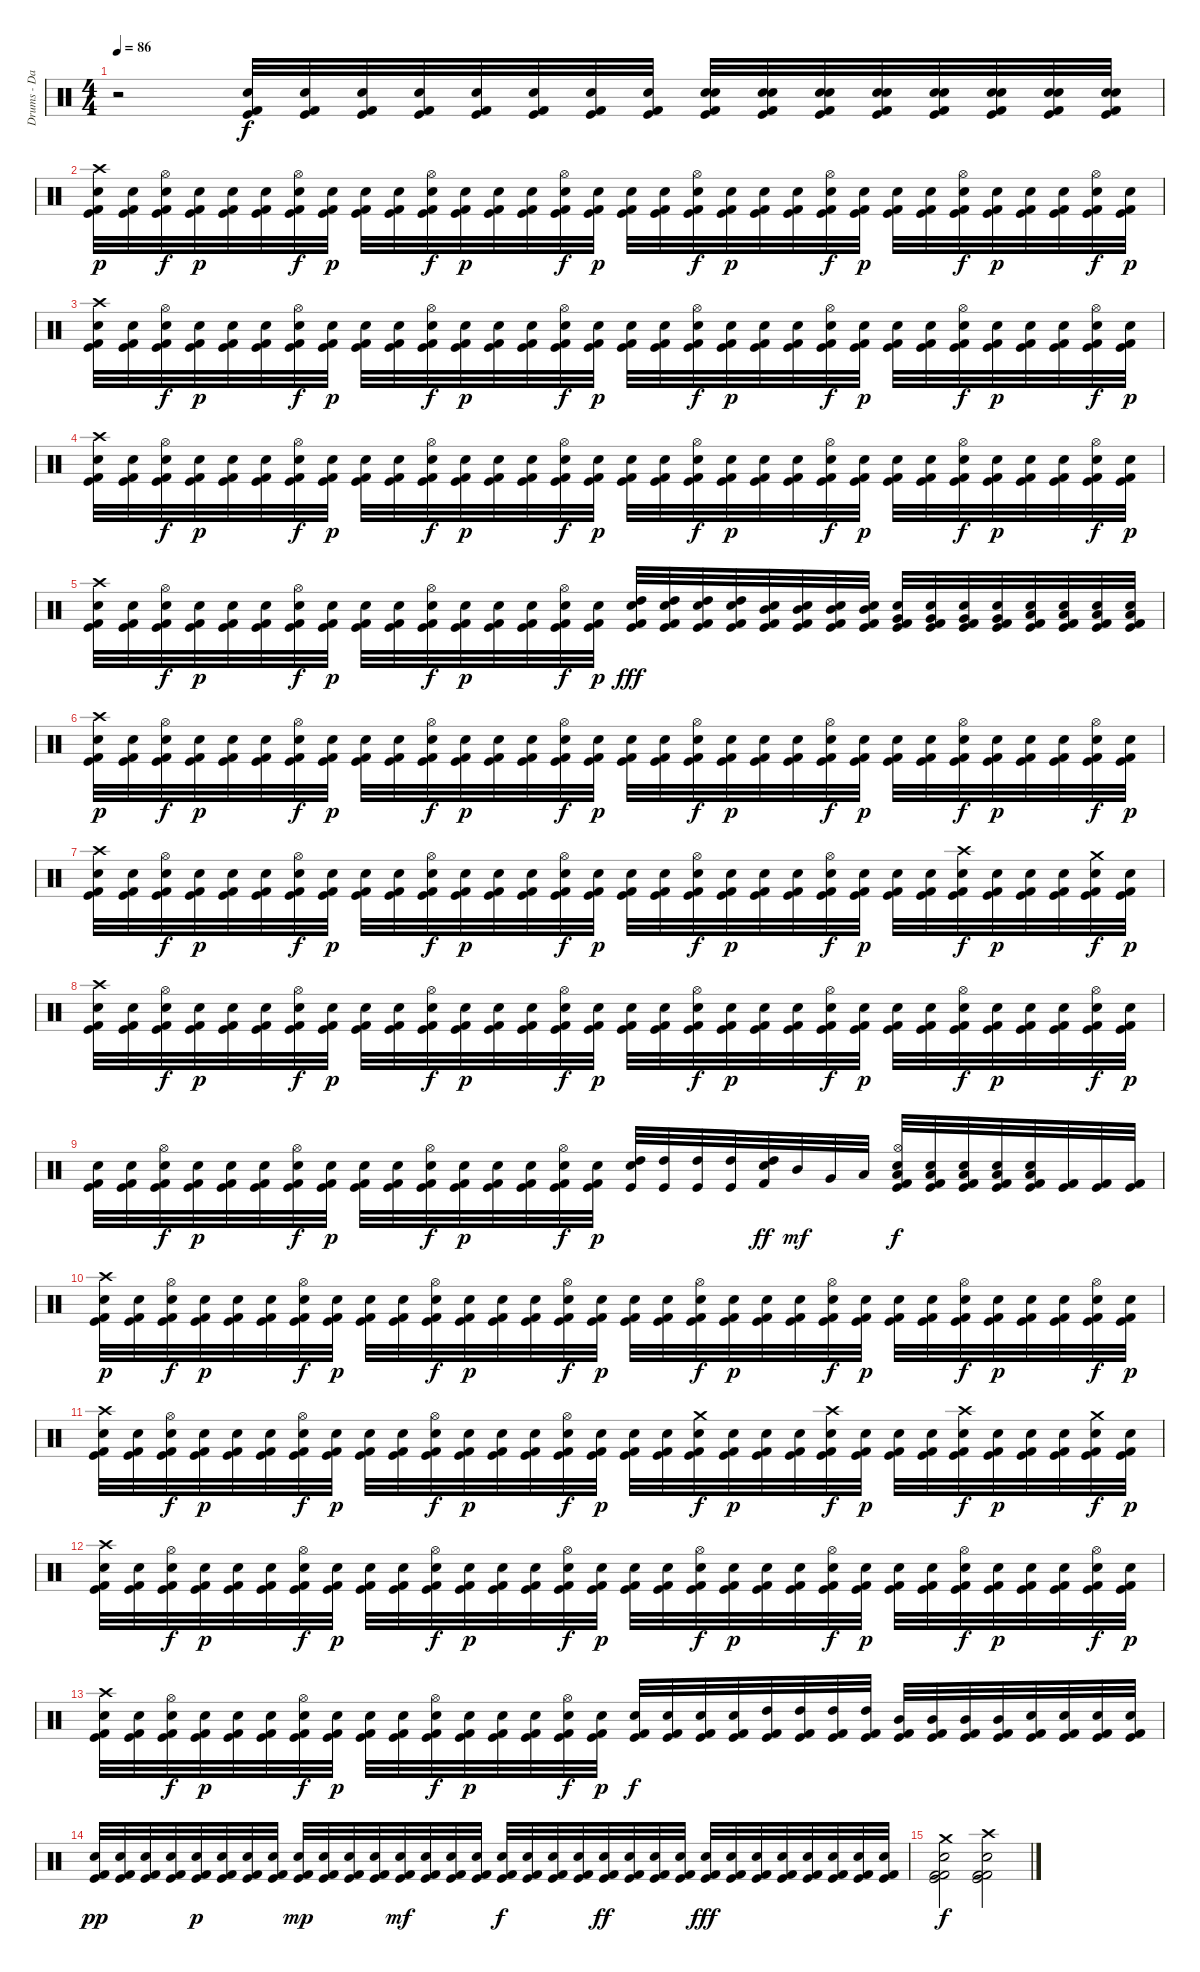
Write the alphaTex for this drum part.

\track ("Drums - Daniel Zimmermann" "Drums - Da") {instrument percussion}
\staff {score}
\articulation defaults
\ts (4 4)
\tempo 86
\clef neutral
\ks c
r.2{dy f} ("Kick (hit)" "Kick (hit) 2" "Electric Snare (hit)").32 ("Kick (hit)" "Kick (hit) 2" "Electric Snare (hit)").32 ("Kick (hit)" "Kick (hit) 2" "Electric Snare (hit)").32 ("Kick (hit)" "Kick (hit) 2" "Electric Snare (hit)").32 ("Kick (hit)" "Kick (hit) 2" "Electric Snare (hit)").32 ("Kick (hit)" "Kick (hit) 2" "Electric Snare (hit)").32 ("Kick (hit)" "Kick (hit) 2" "Electric Snare (hit)").32 ("Kick (hit)" "Kick (hit) 2" "Electric Snare (hit)").32 ("Kick (hit)" "Kick (hit) 2" "Snare (hit) 2" "Electric Snare (hit)").32 ("Kick (hit)" "Kick (hit) 2" "Snare (hit) 2" "Electric Snare (hit)").32 ("Kick (hit)" "Kick (hit) 2" "Snare (hit) 2" "Electric Snare (hit)").32 ("Kick (hit)" "Kick (hit) 2" "Snare (hit) 2" "Electric Snare (hit)").32 ("Kick (hit)" "Kick (hit) 2" "Snare (hit) 2" "Electric Snare (hit)").32 ("Kick (hit)" "Kick (hit) 2" "Snare (hit) 2" "Electric Snare (hit)").32 ("Kick (hit)" "Kick (hit) 2" "Snare (hit) 2" "Electric Snare (hit)").32 ("Kick (hit)" "Kick (hit) 2" "Snare (hit) 2" "Electric Snare (hit)").32 |
("Kick (hit)" "Kick (hit) 2" "Electric Snare (hit)" "Crash high (hit)").32{dy p} ("Kick (hit)" "Kick (hit) 2" "Electric Snare (hit)").32 ("Kick (hit)" "Kick (hit) 2" "Electric Snare (hit)" "Hi-Hat (open)").32{dy f} ("Kick (hit)" "Kick (hit) 2" "Electric Snare (hit)").32{dy p} ("Kick (hit)" "Kick (hit) 2" "Electric Snare (hit)").32 ("Kick (hit)" "Kick (hit) 2" "Electric Snare (hit)").32 ("Kick (hit)" "Kick (hit) 2" "Electric Snare (hit)" "Hi-Hat (open)").32{dy f} ("Kick (hit)" "Kick (hit) 2" "Electric Snare (hit)").32{dy p} ("Kick (hit)" "Kick (hit) 2" "Electric Snare (hit)").32 ("Kick (hit)" "Kick (hit) 2" "Electric Snare (hit)").32 ("Kick (hit)" "Kick (hit) 2" "Electric Snare (hit)" "Hi-Hat (open)").32{dy f} ("Kick (hit)" "Kick (hit) 2" "Electric Snare (hit)").32{dy p} ("Kick (hit)" "Kick (hit) 2" "Electric Snare (hit)").32 ("Kick (hit)" "Kick (hit) 2" "Electric Snare (hit)").32 ("Kick (hit)" "Kick (hit) 2" "Electric Snare (hit)" "Hi-Hat (open)").32{dy f} ("Kick (hit)" "Kick (hit) 2" "Electric Snare (hit)").32{dy p} ("Kick (hit)" "Kick (hit) 2" "Electric Snare (hit)").32 ("Kick (hit)" "Kick (hit) 2" "Electric Snare (hit)").32 ("Kick (hit)" "Kick (hit) 2" "Electric Snare (hit)" "Hi-Hat (open)").32{dy f} ("Kick (hit)" "Kick (hit) 2" "Electric Snare (hit)").32{dy p} ("Kick (hit)" "Kick (hit) 2" "Electric Snare (hit)").32 ("Kick (hit)" "Kick (hit) 2" "Electric Snare (hit)").32 ("Kick (hit)" "Kick (hit) 2" "Electric Snare (hit)" "Hi-Hat (open)").32{dy f} ("Kick (hit)" "Kick (hit) 2" "Electric Snare (hit)").32{dy p} ("Kick (hit)" "Kick (hit) 2" "Electric Snare (hit)").32 ("Kick (hit)" "Kick (hit) 2" "Electric Snare (hit)").32 ("Kick (hit)" "Kick (hit) 2" "Electric Snare (hit)" "Hi-Hat (open)").32{dy f} ("Kick (hit)" "Kick (hit) 2" "Electric Snare (hit)").32{dy p} ("Kick (hit)" "Kick (hit) 2" "Electric Snare (hit)").32 ("Kick (hit)" "Kick (hit) 2" "Electric Snare (hit)").32 ("Kick (hit)" "Kick (hit) 2" "Electric Snare (hit)" "Hi-Hat (open)").32{dy f} ("Kick (hit)" "Kick (hit) 2" "Electric Snare (hit)").32{dy p} |
("Kick (hit)" "Kick (hit) 2" "Electric Snare (hit)" "Crash high (hit)").32 ("Kick (hit)" "Kick (hit) 2" "Electric Snare (hit)").32 ("Kick (hit)" "Kick (hit) 2" "Electric Snare (hit)" "Hi-Hat (open)").32{dy f} ("Kick (hit)" "Kick (hit) 2" "Electric Snare (hit)").32{dy p} ("Kick (hit)" "Kick (hit) 2" "Electric Snare (hit)").32 ("Kick (hit)" "Kick (hit) 2" "Electric Snare (hit)").32 ("Kick (hit)" "Kick (hit) 2" "Electric Snare (hit)" "Hi-Hat (open)").32{dy f} ("Kick (hit)" "Kick (hit) 2" "Electric Snare (hit)").32{dy p} ("Kick (hit)" "Kick (hit) 2" "Electric Snare (hit)").32 ("Kick (hit)" "Kick (hit) 2" "Electric Snare (hit)").32 ("Kick (hit)" "Kick (hit) 2" "Electric Snare (hit)" "Hi-Hat (open)").32{dy f} ("Kick (hit)" "Kick (hit) 2" "Electric Snare (hit)").32{dy p} ("Kick (hit)" "Kick (hit) 2" "Electric Snare (hit)").32 ("Kick (hit)" "Kick (hit) 2" "Electric Snare (hit)").32 ("Kick (hit)" "Kick (hit) 2" "Electric Snare (hit)" "Hi-Hat (open)").32{dy f} ("Kick (hit)" "Kick (hit) 2" "Electric Snare (hit)").32{dy p} ("Kick (hit)" "Kick (hit) 2" "Electric Snare (hit)").32 ("Kick (hit)" "Kick (hit) 2" "Electric Snare (hit)").32 ("Kick (hit)" "Kick (hit) 2" "Electric Snare (hit)" "Hi-Hat (open)").32{dy f} ("Kick (hit)" "Kick (hit) 2" "Electric Snare (hit)").32{dy p} ("Kick (hit)" "Kick (hit) 2" "Electric Snare (hit)").32 ("Kick (hit)" "Kick (hit) 2" "Electric Snare (hit)").32 ("Kick (hit)" "Kick (hit) 2" "Electric Snare (hit)" "Hi-Hat (open)").32{dy f} ("Kick (hit)" "Kick (hit) 2" "Electric Snare (hit)").32{dy p} ("Kick (hit)" "Kick (hit) 2" "Electric Snare (hit)").32 ("Kick (hit)" "Kick (hit) 2" "Electric Snare (hit)").32 ("Kick (hit)" "Kick (hit) 2" "Electric Snare (hit)" "Hi-Hat (open)").32{dy f} ("Kick (hit)" "Kick (hit) 2" "Electric Snare (hit)").32{dy p} ("Kick (hit)" "Kick (hit) 2" "Electric Snare (hit)").32 ("Kick (hit)" "Kick (hit) 2" "Electric Snare (hit)").32 ("Kick (hit)" "Kick (hit) 2" "Electric Snare (hit)" "Hi-Hat (open)").32{dy f} ("Kick (hit)" "Kick (hit) 2" "Electric Snare (hit)").32{dy p} |
("Kick (hit)" "Kick (hit) 2" "Electric Snare (hit)" "Crash high (hit)").32 ("Kick (hit)" "Kick (hit) 2" "Electric Snare (hit)").32 ("Kick (hit)" "Kick (hit) 2" "Electric Snare (hit)" "Hi-Hat (open)").32{dy f} ("Kick (hit)" "Kick (hit) 2" "Electric Snare (hit)").32{dy p} ("Kick (hit)" "Kick (hit) 2" "Electric Snare (hit)").32 ("Kick (hit)" "Kick (hit) 2" "Electric Snare (hit)").32 ("Kick (hit)" "Kick (hit) 2" "Electric Snare (hit)" "Hi-Hat (open)").32{dy f} ("Kick (hit)" "Kick (hit) 2" "Electric Snare (hit)").32{dy p} ("Kick (hit)" "Kick (hit) 2" "Electric Snare (hit)").32 ("Kick (hit)" "Kick (hit) 2" "Electric Snare (hit)").32 ("Kick (hit)" "Kick (hit) 2" "Electric Snare (hit)" "Hi-Hat (open)").32{dy f} ("Kick (hit)" "Kick (hit) 2" "Electric Snare (hit)").32{dy p} ("Kick (hit)" "Kick (hit) 2" "Electric Snare (hit)").32 ("Kick (hit)" "Kick (hit) 2" "Electric Snare (hit)").32 ("Kick (hit)" "Kick (hit) 2" "Electric Snare (hit)" "Hi-Hat (open)").32{dy f} ("Kick (hit)" "Kick (hit) 2" "Electric Snare (hit)").32{dy p} ("Kick (hit)" "Kick (hit) 2" "Electric Snare (hit)").32 ("Kick (hit)" "Kick (hit) 2" "Electric Snare (hit)").32 ("Kick (hit)" "Kick (hit) 2" "Electric Snare (hit)" "Hi-Hat (open)").32{dy f} ("Kick (hit)" "Kick (hit) 2" "Electric Snare (hit)").32{dy p} ("Kick (hit)" "Kick (hit) 2" "Electric Snare (hit)").32 ("Kick (hit)" "Kick (hit) 2" "Electric Snare (hit)").32 ("Kick (hit)" "Kick (hit) 2" "Electric Snare (hit)" "Hi-Hat (open)").32{dy f} ("Kick (hit)" "Kick (hit) 2" "Electric Snare (hit)").32{dy p} ("Kick (hit)" "Kick (hit) 2" "Electric Snare (hit)").32 ("Kick (hit)" "Kick (hit) 2" "Electric Snare (hit)").32 ("Kick (hit)" "Kick (hit) 2" "Electric Snare (hit)" "Hi-Hat (open)").32{dy f} ("Kick (hit)" "Kick (hit) 2" "Electric Snare (hit)").32{dy p} ("Kick (hit)" "Kick (hit) 2" "Electric Snare (hit)").32 ("Kick (hit)" "Kick (hit) 2" "Electric Snare (hit)").32 ("Kick (hit)" "Kick (hit) 2" "Electric Snare (hit)" "Hi-Hat (open)").32{dy f} ("Kick (hit)" "Kick (hit) 2" "Electric Snare (hit)").32{dy p} |
("Kick (hit)" "Kick (hit) 2" "Electric Snare (hit)" "Crash high (hit)").32 ("Kick (hit)" "Kick (hit) 2" "Electric Snare (hit)").32 ("Kick (hit)" "Kick (hit) 2" "Electric Snare (hit)" "Hi-Hat (open)").32{dy f} ("Kick (hit)" "Kick (hit) 2" "Electric Snare (hit)").32{dy p} ("Kick (hit)" "Kick (hit) 2" "Electric Snare (hit)").32 ("Kick (hit)" "Kick (hit) 2" "Electric Snare (hit)").32 ("Kick (hit)" "Kick (hit) 2" "Electric Snare (hit)" "Hi-Hat (open)").32{dy f} ("Kick (hit)" "Kick (hit) 2" "Electric Snare (hit)").32{dy p} ("Kick (hit)" "Kick (hit) 2" "Electric Snare (hit)").32 ("Kick (hit)" "Kick (hit) 2" "Electric Snare (hit)").32 ("Kick (hit)" "Kick (hit) 2" "Electric Snare (hit)" "Hi-Hat (open)").32{dy f} ("Kick (hit)" "Kick (hit) 2" "Electric Snare (hit)").32{dy p} ("Kick (hit)" "Kick (hit) 2" "Electric Snare (hit)").32 ("Kick (hit)" "Kick (hit) 2" "Electric Snare (hit)").32 ("Kick (hit)" "Kick (hit) 2" "Electric Snare (hit)" "Hi-Hat (open)").32{dy f} ("Kick (hit)" "Kick (hit) 2" "Electric Snare (hit)").32{dy p} ("Kick (hit)" "Kick (hit) 2" "Electric Snare (hit)" "High Tom (hit)").32{dy fff} ("Kick (hit)" "Kick (hit) 2" "Electric Snare (hit)" "High Tom (hit)").32 ("Kick (hit)" "Kick (hit) 2" "Electric Snare (hit)" "High Tom (hit)").32 ("Kick (hit)" "Kick (hit) 2" "Electric Snare (hit)" "High Tom (hit)").32 ("Kick (hit)" "Kick (hit) 2" "Electric Snare (hit)" "Mid Tom (hit)").32 ("Kick (hit)" "Kick (hit) 2" "Electric Snare (hit)" "Mid Tom (hit)").32 ("Kick (hit)" "Kick (hit) 2" "Electric Snare (hit)" "Mid Tom (hit)").32 ("Kick (hit)" "Kick (hit) 2" "Electric Snare (hit)" "Mid Tom (hit)").32 ("Kick (hit)" "Kick (hit) 2" "Electric Snare (hit)" "Very Low Tom (hit)").32 ("Kick (hit)" "Kick (hit) 2" "Electric Snare (hit)" "Very Low Tom (hit)").32 ("Kick (hit)" "Kick (hit) 2" "Electric Snare (hit)" "Very Low Tom (hit)").32 ("Kick (hit)" "Kick (hit) 2" "Electric Snare (hit)" "Very Low Tom (hit)").32 ("Kick (hit)" "Kick (hit) 2" "Electric Snare (hit)" "Low Floor Tom (hit)").32 ("Kick (hit)" "Kick (hit) 2" "Electric Snare (hit)" "Low Floor Tom (hit)").32 ("Kick (hit)" "Kick (hit) 2" "Electric Snare (hit)" "Low Floor Tom (hit)").32 ("Kick (hit)" "Kick (hit) 2" "Electric Snare (hit)" "Low Floor Tom (hit)").32 |
("Kick (hit)" "Kick (hit) 2" "Electric Snare (hit)" "Crash high (hit)").32{dy p} ("Kick (hit)" "Kick (hit) 2" "Electric Snare (hit)").32 ("Kick (hit)" "Kick (hit) 2" "Electric Snare (hit)" "Hi-Hat (open)").32{dy f} ("Kick (hit)" "Kick (hit) 2" "Electric Snare (hit)").32{dy p} ("Kick (hit)" "Kick (hit) 2" "Electric Snare (hit)").32 ("Kick (hit)" "Kick (hit) 2" "Electric Snare (hit)").32 ("Kick (hit)" "Kick (hit) 2" "Electric Snare (hit)" "Hi-Hat (open)").32{dy f} ("Kick (hit)" "Kick (hit) 2" "Electric Snare (hit)").32{dy p} ("Kick (hit)" "Kick (hit) 2" "Electric Snare (hit)").32 ("Kick (hit)" "Kick (hit) 2" "Electric Snare (hit)").32 ("Kick (hit)" "Kick (hit) 2" "Electric Snare (hit)" "Hi-Hat (open)").32{dy f} ("Kick (hit)" "Kick (hit) 2" "Electric Snare (hit)").32{dy p} ("Kick (hit)" "Kick (hit) 2" "Electric Snare (hit)").32 ("Kick (hit)" "Kick (hit) 2" "Electric Snare (hit)").32 ("Kick (hit)" "Kick (hit) 2" "Electric Snare (hit)" "Hi-Hat (open)").32{dy f} ("Kick (hit)" "Kick (hit) 2" "Electric Snare (hit)").32{dy p} ("Kick (hit)" "Kick (hit) 2" "Electric Snare (hit)").32 ("Kick (hit)" "Kick (hit) 2" "Electric Snare (hit)").32 ("Kick (hit)" "Kick (hit) 2" "Electric Snare (hit)" "Hi-Hat (open)").32{dy f} ("Kick (hit)" "Kick (hit) 2" "Electric Snare (hit)").32{dy p} ("Kick (hit)" "Kick (hit) 2" "Electric Snare (hit)").32 ("Kick (hit)" "Kick (hit) 2" "Electric Snare (hit)").32 ("Kick (hit)" "Kick (hit) 2" "Electric Snare (hit)" "Hi-Hat (open)").32{dy f} ("Kick (hit)" "Kick (hit) 2" "Electric Snare (hit)").32{dy p} ("Kick (hit)" "Kick (hit) 2" "Electric Snare (hit)").32 ("Kick (hit)" "Kick (hit) 2" "Electric Snare (hit)").32 ("Kick (hit)" "Kick (hit) 2" "Electric Snare (hit)" "Hi-Hat (open)").32{dy f} ("Kick (hit)" "Kick (hit) 2" "Electric Snare (hit)").32{dy p} ("Kick (hit)" "Kick (hit) 2" "Electric Snare (hit)").32 ("Kick (hit)" "Kick (hit) 2" "Electric Snare (hit)").32 ("Kick (hit)" "Kick (hit) 2" "Electric Snare (hit)" "Hi-Hat (open)").32{dy f} ("Kick (hit)" "Kick (hit) 2" "Electric Snare (hit)").32{dy p} |
("Kick (hit)" "Kick (hit) 2" "Electric Snare (hit)" "Crash high (hit)").32 ("Kick (hit)" "Kick (hit) 2" "Electric Snare (hit)").32 ("Kick (hit)" "Kick (hit) 2" "Electric Snare (hit)" "Hi-Hat (open)").32{dy f} ("Kick (hit)" "Kick (hit) 2" "Electric Snare (hit)").32{dy p} ("Kick (hit)" "Kick (hit) 2" "Electric Snare (hit)").32 ("Kick (hit)" "Kick (hit) 2" "Electric Snare (hit)").32 ("Kick (hit)" "Kick (hit) 2" "Electric Snare (hit)" "Hi-Hat (open)").32{dy f} ("Kick (hit)" "Kick (hit) 2" "Electric Snare (hit)").32{dy p} ("Kick (hit)" "Kick (hit) 2" "Electric Snare (hit)").32 ("Kick (hit)" "Kick (hit) 2" "Electric Snare (hit)").32 ("Kick (hit)" "Kick (hit) 2" "Electric Snare (hit)" "Hi-Hat (open)").32{dy f} ("Kick (hit)" "Kick (hit) 2" "Electric Snare (hit)").32{dy p} ("Kick (hit)" "Kick (hit) 2" "Electric Snare (hit)").32 ("Kick (hit)" "Kick (hit) 2" "Electric Snare (hit)").32 ("Kick (hit)" "Kick (hit) 2" "Electric Snare (hit)" "Hi-Hat (open)").32{dy f} ("Kick (hit)" "Kick (hit) 2" "Electric Snare (hit)").32{dy p} ("Kick (hit)" "Kick (hit) 2" "Electric Snare (hit)").32 ("Kick (hit)" "Kick (hit) 2" "Electric Snare (hit)").32 ("Kick (hit)" "Kick (hit) 2" "Electric Snare (hit)" "Hi-Hat (open)").32{dy f} ("Kick (hit)" "Kick (hit) 2" "Electric Snare (hit)").32{dy p} ("Kick (hit)" "Kick (hit) 2" "Electric Snare (hit)").32 ("Kick (hit)" "Kick (hit) 2" "Electric Snare (hit)").32 ("Kick (hit)" "Kick (hit) 2" "Electric Snare (hit)" "Hi-Hat (open)").32{dy f} ("Kick (hit)" "Kick (hit) 2" "Electric Snare (hit)").32{dy p} ("Kick (hit)" "Kick (hit) 2" "Electric Snare (hit)").32 ("Kick (hit)" "Kick (hit) 2" "Electric Snare (hit)").32 ("Kick (hit)" "Kick (hit) 2" "Electric Snare (hit)" "Crash high (hit)").32{dy f} ("Kick (hit)" "Kick (hit) 2" "Electric Snare (hit)").32{dy p} ("Kick (hit)" "Kick (hit) 2" "Electric Snare (hit)").32 ("Kick (hit)" "Kick (hit) 2" "Electric Snare (hit)").32 ("Kick (hit)" "Kick (hit) 2" "Electric Snare (hit)" "Crash medium (hit)").32{dy f} ("Kick (hit)" "Kick (hit) 2" "Electric Snare (hit)").32{dy p} |
("Kick (hit)" "Kick (hit) 2" "Electric Snare (hit)" "Crash high (hit)").32 ("Kick (hit)" "Kick (hit) 2" "Electric Snare (hit)").32 ("Kick (hit)" "Kick (hit) 2" "Electric Snare (hit)" "Hi-Hat (open)").32{dy f} ("Kick (hit)" "Kick (hit) 2" "Electric Snare (hit)").32{dy p} ("Kick (hit)" "Kick (hit) 2" "Electric Snare (hit)").32 ("Kick (hit)" "Kick (hit) 2" "Electric Snare (hit)").32 ("Kick (hit)" "Kick (hit) 2" "Electric Snare (hit)" "Hi-Hat (open)").32{dy f} ("Kick (hit)" "Kick (hit) 2" "Electric Snare (hit)").32{dy p} ("Kick (hit)" "Kick (hit) 2" "Electric Snare (hit)").32 ("Kick (hit)" "Kick (hit) 2" "Electric Snare (hit)").32 ("Kick (hit)" "Kick (hit) 2" "Electric Snare (hit)" "Hi-Hat (open)").32{dy f} ("Kick (hit)" "Kick (hit) 2" "Electric Snare (hit)").32{dy p} ("Kick (hit)" "Kick (hit) 2" "Electric Snare (hit)").32 ("Kick (hit)" "Kick (hit) 2" "Electric Snare (hit)").32 ("Kick (hit)" "Kick (hit) 2" "Electric Snare (hit)" "Hi-Hat (open)").32{dy f} ("Kick (hit)" "Kick (hit) 2" "Electric Snare (hit)").32{dy p} ("Kick (hit)" "Kick (hit) 2" "Electric Snare (hit)").32 ("Kick (hit)" "Kick (hit) 2" "Electric Snare (hit)").32 ("Kick (hit)" "Kick (hit) 2" "Electric Snare (hit)" "Hi-Hat (open)").32{dy f} ("Kick (hit)" "Kick (hit) 2" "Electric Snare (hit)").32{dy p} ("Kick (hit)" "Kick (hit) 2" "Electric Snare (hit)").32 ("Kick (hit)" "Kick (hit) 2" "Electric Snare (hit)").32 ("Kick (hit)" "Kick (hit) 2" "Electric Snare (hit)" "Hi-Hat (open)").32{dy f} ("Kick (hit)" "Kick (hit) 2" "Electric Snare (hit)").32{dy p} ("Kick (hit)" "Kick (hit) 2" "Electric Snare (hit)").32 ("Kick (hit)" "Kick (hit) 2" "Electric Snare (hit)").32 ("Kick (hit)" "Kick (hit) 2" "Electric Snare (hit)" "Hi-Hat (open)").32{dy f} ("Kick (hit)" "Kick (hit) 2" "Electric Snare (hit)").32{dy p} ("Kick (hit)" "Kick (hit) 2" "Electric Snare (hit)").32 ("Kick (hit)" "Kick (hit) 2" "Electric Snare (hit)").32 ("Kick (hit)" "Kick (hit) 2" "Electric Snare (hit)" "Hi-Hat (open)").32{dy f} ("Kick (hit)" "Kick (hit) 2" "Electric Snare (hit)").32{dy p} |
("Kick (hit)" "Kick (hit) 2" "Electric Snare (hit)").32 ("Kick (hit)" "Kick (hit) 2" "Electric Snare (hit)").32 ("Kick (hit)" "Kick (hit) 2" "Electric Snare (hit)" "Hi-Hat (open)").32{dy f} ("Kick (hit)" "Kick (hit) 2" "Electric Snare (hit)").32{dy p} ("Kick (hit)" "Kick (hit) 2" "Electric Snare (hit)").32 ("Kick (hit)" "Kick (hit) 2" "Electric Snare (hit)").32 ("Kick (hit)" "Kick (hit) 2" "Electric Snare (hit)" "Hi-Hat (open)").32{dy f} ("Kick (hit)" "Kick (hit) 2" "Electric Snare (hit)").32{dy p} ("Kick (hit)" "Kick (hit) 2" "Electric Snare (hit)").32 ("Kick (hit)" "Kick (hit) 2" "Electric Snare (hit)").32 ("Kick (hit)" "Kick (hit) 2" "Electric Snare (hit)" "Hi-Hat (open)").32{dy f} ("Kick (hit)" "Kick (hit) 2" "Electric Snare (hit)").32{dy p} ("Kick (hit)" "Kick (hit) 2" "Electric Snare (hit)").32 ("Kick (hit)" "Kick (hit) 2" "Electric Snare (hit)").32 ("Kick (hit)" "Kick (hit) 2" "Electric Snare (hit)" "Hi-Hat (open)").32{dy f} ("Kick (hit)" "Kick (hit) 2" "Electric Snare (hit)").32{dy p} ("Kick (hit)" "High Tom (hit)" "Electric Snare (hit)").32 ("Kick (hit)" "High Tom (hit)").32 ("Kick (hit)" "High Tom (hit)").32 ("Kick (hit)" "High Tom (hit)").32 ("High Tom (hit)" "Kick (hit) 2" "Electric Snare (hit)").32{dy ff} "Mid Tom (hit)".32{dy mf} "Very Low Tom (hit)".32 "Low Floor Tom (hit)".32 ("Kick (hit)" "Kick (hit) 2" "Electric Snare (hit)" "Hi-Hat (open)" "Low Floor Tom (hit)").32{dy f} ("Kick (hit)" "Kick (hit) 2" "Electric Snare (hit)" "Low Floor Tom (hit)").32 ("Kick (hit)" "Kick (hit) 2" "Electric Snare (hit)" "Low Floor Tom (hit)").32 ("Kick (hit)" "Kick (hit) 2" "Electric Snare (hit)" "Low Floor Tom (hit)").32 ("Kick (hit)" "Kick (hit) 2" "Electric Snare (hit)" "Low Floor Tom (hit)").32 ("Kick (hit)" "Kick (hit) 2").32 ("Kick (hit)" "Kick (hit) 2").32 ("Kick (hit)" "Kick (hit) 2").32 |
("Kick (hit)" "Kick (hit) 2" "Electric Snare (hit)" "Crash high (hit)").32{dy p} ("Kick (hit)" "Kick (hit) 2" "Electric Snare (hit)").32 ("Kick (hit)" "Kick (hit) 2" "Electric Snare (hit)" "Hi-Hat (open)").32{dy f} ("Kick (hit)" "Kick (hit) 2" "Electric Snare (hit)").32{dy p} ("Kick (hit)" "Kick (hit) 2" "Electric Snare (hit)").32 ("Kick (hit)" "Kick (hit) 2" "Electric Snare (hit)").32 ("Kick (hit)" "Kick (hit) 2" "Electric Snare (hit)" "Hi-Hat (open)").32{dy f} ("Kick (hit)" "Kick (hit) 2" "Electric Snare (hit)").32{dy p} ("Kick (hit)" "Kick (hit) 2" "Electric Snare (hit)").32 ("Kick (hit)" "Kick (hit) 2" "Electric Snare (hit)").32 ("Kick (hit)" "Kick (hit) 2" "Electric Snare (hit)" "Hi-Hat (open)").32{dy f} ("Kick (hit)" "Kick (hit) 2" "Electric Snare (hit)").32{dy p} ("Kick (hit)" "Kick (hit) 2" "Electric Snare (hit)").32 ("Kick (hit)" "Kick (hit) 2" "Electric Snare (hit)").32 ("Kick (hit)" "Kick (hit) 2" "Electric Snare (hit)" "Hi-Hat (open)").32{dy f} ("Kick (hit)" "Kick (hit) 2" "Electric Snare (hit)").32{dy p} ("Kick (hit)" "Kick (hit) 2" "Electric Snare (hit)").32 ("Kick (hit)" "Kick (hit) 2" "Electric Snare (hit)").32 ("Kick (hit)" "Kick (hit) 2" "Electric Snare (hit)" "Hi-Hat (open)").32{dy f} ("Kick (hit)" "Kick (hit) 2" "Electric Snare (hit)").32{dy p} ("Kick (hit)" "Kick (hit) 2" "Electric Snare (hit)").32 ("Kick (hit)" "Kick (hit) 2" "Electric Snare (hit)").32 ("Kick (hit)" "Kick (hit) 2" "Electric Snare (hit)" "Hi-Hat (open)").32{dy f} ("Kick (hit)" "Kick (hit) 2" "Electric Snare (hit)").32{dy p} ("Kick (hit)" "Kick (hit) 2" "Electric Snare (hit)").32 ("Kick (hit)" "Kick (hit) 2" "Electric Snare (hit)").32 ("Kick (hit)" "Kick (hit) 2" "Electric Snare (hit)" "Hi-Hat (open)").32{dy f} ("Kick (hit)" "Kick (hit) 2" "Electric Snare (hit)").32{dy p} ("Kick (hit)" "Kick (hit) 2" "Electric Snare (hit)").32 ("Kick (hit)" "Kick (hit) 2" "Electric Snare (hit)").32 ("Kick (hit)" "Kick (hit) 2" "Electric Snare (hit)" "Hi-Hat (open)").32{dy f} ("Kick (hit)" "Kick (hit) 2" "Electric Snare (hit)").32{dy p} |
("Kick (hit)" "Kick (hit) 2" "Electric Snare (hit)" "Crash high (hit)").32 ("Kick (hit)" "Kick (hit) 2" "Electric Snare (hit)").32 ("Kick (hit)" "Kick (hit) 2" "Electric Snare (hit)" "Hi-Hat (open)").32{dy f} ("Kick (hit)" "Kick (hit) 2" "Electric Snare (hit)").32{dy p} ("Kick (hit)" "Kick (hit) 2" "Electric Snare (hit)").32 ("Kick (hit)" "Kick (hit) 2" "Electric Snare (hit)").32 ("Kick (hit)" "Kick (hit) 2" "Electric Snare (hit)" "Hi-Hat (open)").32{dy f} ("Kick (hit)" "Kick (hit) 2" "Electric Snare (hit)").32{dy p} ("Kick (hit)" "Kick (hit) 2" "Electric Snare (hit)").32 ("Kick (hit)" "Kick (hit) 2" "Electric Snare (hit)").32 ("Kick (hit)" "Kick (hit) 2" "Electric Snare (hit)" "Hi-Hat (open)").32{dy f} ("Kick (hit)" "Kick (hit) 2" "Electric Snare (hit)").32{dy p} ("Kick (hit)" "Kick (hit) 2" "Electric Snare (hit)").32 ("Kick (hit)" "Kick (hit) 2" "Electric Snare (hit)").32 ("Kick (hit)" "Kick (hit) 2" "Electric Snare (hit)" "Hi-Hat (open)").32{dy f} ("Kick (hit)" "Kick (hit) 2" "Electric Snare (hit)").32{dy p} ("Kick (hit)" "Kick (hit) 2" "Electric Snare (hit)").32 ("Kick (hit)" "Kick (hit) 2" "Electric Snare (hit)").32 ("Kick (hit)" "Kick (hit) 2" "Electric Snare (hit)" "Crash medium (hit)").32{dy f} ("Kick (hit)" "Kick (hit) 2" "Electric Snare (hit)").32{dy p} ("Kick (hit)" "Kick (hit) 2" "Electric Snare (hit)").32 ("Kick (hit)" "Kick (hit) 2" "Electric Snare (hit)").32 ("Kick (hit)" "Kick (hit) 2" "Electric Snare (hit)" "Crash high (hit)").32{dy f} ("Kick (hit)" "Kick (hit) 2" "Electric Snare (hit)").32{dy p} ("Kick (hit)" "Kick (hit) 2" "Electric Snare (hit)").32 ("Kick (hit)" "Kick (hit) 2" "Electric Snare (hit)").32 ("Kick (hit)" "Kick (hit) 2" "Electric Snare (hit)" "Crash high (hit)").32{dy f} ("Kick (hit)" "Kick (hit) 2" "Electric Snare (hit)").32{dy p} ("Kick (hit)" "Kick (hit) 2" "Electric Snare (hit)").32 ("Kick (hit)" "Kick (hit) 2" "Electric Snare (hit)").32 ("Kick (hit)" "Kick (hit) 2" "Electric Snare (hit)" "Crash medium (hit)").32{dy f} ("Kick (hit)" "Kick (hit) 2" "Electric Snare (hit)").32{dy p} |
("Kick (hit)" "Kick (hit) 2" "Electric Snare (hit)" "Crash high (hit)").32 ("Kick (hit)" "Kick (hit) 2" "Electric Snare (hit)").32 ("Kick (hit)" "Kick (hit) 2" "Electric Snare (hit)" "Hi-Hat (open)").32{dy f} ("Kick (hit)" "Kick (hit) 2" "Electric Snare (hit)").32{dy p} ("Kick (hit)" "Kick (hit) 2" "Electric Snare (hit)").32 ("Kick (hit)" "Kick (hit) 2" "Electric Snare (hit)").32 ("Kick (hit)" "Kick (hit) 2" "Electric Snare (hit)" "Hi-Hat (open)").32{dy f} ("Kick (hit)" "Kick (hit) 2" "Electric Snare (hit)").32{dy p} ("Kick (hit)" "Kick (hit) 2" "Electric Snare (hit)").32 ("Kick (hit)" "Kick (hit) 2" "Electric Snare (hit)").32 ("Kick (hit)" "Kick (hit) 2" "Electric Snare (hit)" "Hi-Hat (open)").32{dy f} ("Kick (hit)" "Kick (hit) 2" "Electric Snare (hit)").32{dy p} ("Kick (hit)" "Kick (hit) 2" "Electric Snare (hit)").32 ("Kick (hit)" "Kick (hit) 2" "Electric Snare (hit)").32 ("Kick (hit)" "Kick (hit) 2" "Electric Snare (hit)" "Hi-Hat (open)").32{dy f} ("Kick (hit)" "Kick (hit) 2" "Electric Snare (hit)").32{dy p} ("Kick (hit)" "Kick (hit) 2" "Electric Snare (hit)").32 ("Kick (hit)" "Kick (hit) 2" "Electric Snare (hit)").32 ("Kick (hit)" "Kick (hit) 2" "Electric Snare (hit)" "Hi-Hat (open)").32{dy f} ("Kick (hit)" "Kick (hit) 2" "Electric Snare (hit)").32{dy p} ("Kick (hit)" "Kick (hit) 2" "Electric Snare (hit)").32 ("Kick (hit)" "Kick (hit) 2" "Electric Snare (hit)").32 ("Kick (hit)" "Kick (hit) 2" "Electric Snare (hit)" "Hi-Hat (open)").32{dy f} ("Kick (hit)" "Kick (hit) 2" "Electric Snare (hit)").32{dy p} ("Kick (hit)" "Kick (hit) 2" "Electric Snare (hit)").32 ("Kick (hit)" "Kick (hit) 2" "Electric Snare (hit)").32 ("Kick (hit)" "Kick (hit) 2" "Electric Snare (hit)" "Hi-Hat (open)").32{dy f} ("Kick (hit)" "Kick (hit) 2" "Electric Snare (hit)").32{dy p} ("Kick (hit)" "Kick (hit) 2" "Electric Snare (hit)").32 ("Kick (hit)" "Kick (hit) 2" "Electric Snare (hit)").32 ("Kick (hit)" "Kick (hit) 2" "Electric Snare (hit)" "Hi-Hat (open)").32{dy f} ("Kick (hit)" "Kick (hit) 2" "Electric Snare (hit)").32{dy p} |
("Kick (hit)" "Kick (hit) 2" "Electric Snare (hit)" "Crash high (hit)").32 ("Kick (hit)" "Kick (hit) 2" "Electric Snare (hit)").32 ("Kick (hit)" "Kick (hit) 2" "Electric Snare (hit)" "Hi-Hat (open)").32{dy f} ("Kick (hit)" "Kick (hit) 2" "Electric Snare (hit)").32{dy p} ("Kick (hit)" "Kick (hit) 2" "Electric Snare (hit)").32 ("Kick (hit)" "Kick (hit) 2" "Electric Snare (hit)").32 ("Kick (hit)" "Kick (hit) 2" "Electric Snare (hit)" "Hi-Hat (open)").32{dy f} ("Kick (hit)" "Kick (hit) 2" "Electric Snare (hit)").32{dy p} ("Kick (hit)" "Kick (hit) 2" "Electric Snare (hit)").32 ("Kick (hit)" "Kick (hit) 2" "Electric Snare (hit)").32 ("Kick (hit)" "Kick (hit) 2" "Electric Snare (hit)" "Hi-Hat (open)").32{dy f} ("Kick (hit)" "Kick (hit) 2" "Electric Snare (hit)").32{dy p} ("Kick (hit)" "Kick (hit) 2" "Electric Snare (hit)").32 ("Kick (hit)" "Kick (hit) 2" "Electric Snare (hit)").32 ("Kick (hit)" "Kick (hit) 2" "Electric Snare (hit)" "Hi-Hat (open)").32{dy f} ("Kick (hit)" "Kick (hit) 2" "Electric Snare (hit)").32{dy p} ("Kick (hit)" "Kick (hit) 2" "Electric Snare (hit)").32{dy f} ("Kick (hit)" "Kick (hit) 2" "Electric Snare (hit)").32 ("Kick (hit)" "Kick (hit) 2" "Electric Snare (hit)").32 ("Kick (hit)" "Kick (hit) 2" "Electric Snare (hit)").32 ("Kick (hit)" "Kick (hit) 2" "High Tom (hit)").32 ("Kick (hit)" "Kick (hit) 2" "High Tom (hit)").32 ("Kick (hit)" "Kick (hit) 2" "High Tom (hit)").32 ("Kick (hit)" "Kick (hit) 2" "High Tom (hit)").32 ("Kick (hit)" "Kick (hit) 2" "Mid Tom (hit)").32 ("Kick (hit)" "Kick (hit) 2" "Mid Tom (hit)").32 ("Kick (hit)" "Kick (hit) 2" "Mid Tom (hit)").32 ("Kick (hit)" "Kick (hit) 2" "Mid Tom (hit)").32 ("Kick (hit)" "Kick (hit) 2" "Electric Snare (hit)").32 ("Kick (hit)" "Kick (hit) 2" "Electric Snare (hit)").32 ("Kick (hit)" "Kick (hit) 2" "Electric Snare (hit)").32 ("Kick (hit)" "Kick (hit) 2" "Electric Snare (hit)").32 |
("Kick (hit)" "Kick (hit) 2" "Electric Snare (hit)").32{dy pp} ("Kick (hit)" "Kick (hit) 2" "Electric Snare (hit)").32 ("Kick (hit)" "Kick (hit) 2" "Electric Snare (hit)").32 ("Kick (hit)" "Kick (hit) 2" "Electric Snare (hit)").32 ("Kick (hit)" "Kick (hit) 2" "Electric Snare (hit)").32{dy p} ("Kick (hit)" "Kick (hit) 2" "Electric Snare (hit)").32 ("Kick (hit)" "Kick (hit) 2" "Electric Snare (hit)").32 ("Kick (hit)" "Kick (hit) 2" "Electric Snare (hit)").32 ("Kick (hit)" "Kick (hit) 2" "Electric Snare (hit)").32{dy mp} ("Kick (hit)" "Kick (hit) 2" "Electric Snare (hit)").32 ("Kick (hit)" "Kick (hit) 2" "Electric Snare (hit)").32 ("Kick (hit)" "Kick (hit) 2" "Electric Snare (hit)").32 ("Kick (hit)" "Kick (hit) 2" "Electric Snare (hit)").32{dy mf} ("Kick (hit)" "Kick (hit) 2" "Electric Snare (hit)").32 ("Kick (hit)" "Kick (hit) 2" "Electric Snare (hit)").32 ("Kick (hit)" "Kick (hit) 2" "Electric Snare (hit)").32 ("Kick (hit)" "Kick (hit) 2" "Electric Snare (hit)").32{dy f} ("Kick (hit)" "Kick (hit) 2" "Electric Snare (hit)").32 ("Kick (hit)" "Kick (hit) 2" "Electric Snare (hit)").32 ("Kick (hit)" "Kick (hit) 2" "Electric Snare (hit)").32 ("Kick (hit)" "Kick (hit) 2" "Electric Snare (hit)").32{dy ff} ("Kick (hit)" "Kick (hit) 2" "Electric Snare (hit)").32 ("Kick (hit)" "Kick (hit) 2" "Electric Snare (hit)").32 ("Kick (hit)" "Kick (hit) 2" "Electric Snare (hit)").32 ("Kick (hit)" "Kick (hit) 2" "Electric Snare (hit)").32{dy fff} ("Kick (hit)" "Kick (hit) 2" "Electric Snare (hit)").32 ("Kick (hit)" "Kick (hit) 2" "Electric Snare (hit)").32 ("Kick (hit)" "Kick (hit) 2" "Electric Snare (hit)").32 ("Kick (hit)" "Kick (hit) 2" "Electric Snare (hit)").32 ("Kick (hit)" "Kick (hit) 2" "Electric Snare (hit)").32 ("Kick (hit)" "Kick (hit) 2" "Electric Snare (hit)").32 ("Kick (hit)" "Kick (hit) 2" "Electric Snare (hit)").32 |
("Kick (hit)" "Kick (hit) 2" "Kick (hit) 2" "Electric Snare (hit)" "Crash medium (hit)").2{dy f} ("Kick (hit)" "Kick (hit) 2" "Kick (hit) 2" "Electric Snare (hit)" "Crash high (hit)").2
